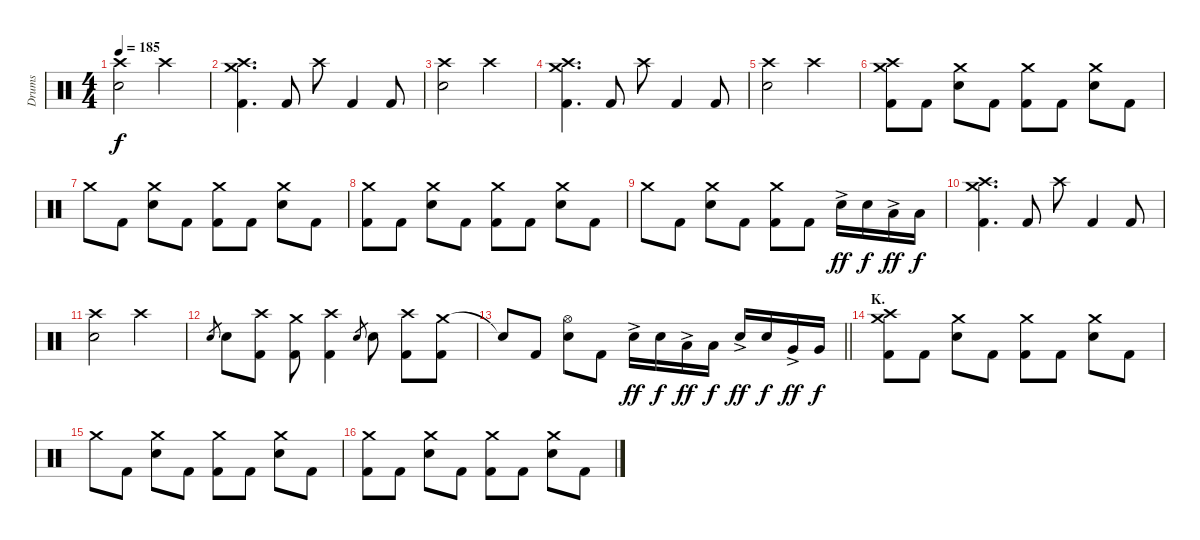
\track ("Drums" "Drums") {instrument percussion}
\staff {score}
\articulation defaults
\ts (4 4)
\tempo 185
\clef neutral
\ks c
("Crash high (hit)" "Electric Snare (hit)").2{dy f} "Crash high (hit)".2 |
("Crash medium (hit)" "Crash high (hit)" "Kick (hit) 2").4{d} "Kick (hit) 2".8 "Crash high (hit)".8 "Kick (hit) 2".4 "Kick (hit) 2".8 |
("Crash high (hit)" "Electric Snare (hit)").2 "Crash high (hit)".2 |
("Crash medium (hit)" "Crash high (hit)" "Kick (hit) 2").4{d} "Kick (hit) 2".8 "Crash high (hit)".8 "Kick (hit) 2".4 "Kick (hit) 2".8 |
("Crash high (hit)" "Electric Snare (hit)").2 "Crash high (hit)".2 |
("Crash medium (hit)" "Crash high (hit)" "Kick (hit) 2").8 "Kick (hit) 2".8 ("Crash medium (hit)" "Electric Snare (hit)").8 "Kick (hit) 2".8 ("Crash medium (hit)" "Kick (hit) 2").8 "Kick (hit) 2".8 ("Crash medium (hit)" "Electric Snare (hit)").8 "Kick (hit) 2".8 |
"Crash medium (hit)".8 "Kick (hit) 2".8 ("Crash medium (hit)" "Electric Snare (hit)").8 "Kick (hit) 2".8 ("Crash medium (hit)" "Kick (hit) 2").8 "Kick (hit) 2".8 ("Crash medium (hit)" "Electric Snare (hit)").8 "Kick (hit) 2".8 |
("Crash medium (hit)" "Kick (hit) 2").8 "Kick (hit) 2".8 ("Crash medium (hit)" "Electric Snare (hit)").8 "Kick (hit) 2".8 ("Crash medium (hit)" "Kick (hit) 2").8 "Kick (hit) 2".8 ("Crash medium (hit)" "Electric Snare (hit)").8 "Kick (hit) 2".8 |
"Crash medium (hit)".8 "Kick (hit) 2".8 ("Crash medium (hit)" "Electric Snare (hit)").8 "Kick (hit) 2".8 ("Crash medium (hit)" "Kick (hit) 2").8 "Kick (hit) 2".8 "Electric Snare (hit)"{ac}.16{dy ff} "Electric Snare (hit)".16{dy f} "Low Tom (hit)"{ac}.16{dy ff} "Low Tom (hit)".16{dy f} |
("Crash medium (hit)" "Crash high (hit)" "Kick (hit) 2").4{d} "Kick (hit) 2".8 "Crash high (hit)".8 "Kick (hit) 2".4 "Kick (hit) 2".8 |
("Crash high (hit)" "Electric Snare (hit)").2 "Crash high (hit)".2 |
"Electric Snare (hit)".8{gr} "Electric Snare (hit)".8 ("Crash high (hit)" "Kick (hit) 2").8 ("Crash medium (hit)" "Kick (hit) 2").8 ("Crash high (hit)" "Kick (hit) 2").4 "Electric Snare (hit)".8{gr} "Electric Snare (hit)".8 ("Crash high (hit)" "Kick (hit) 2").8 ("Crash medium (hit)" "Kick (hit) 2").8 |
\barLineRight lightlight "Snare (hit)"{t}.8 "Kick (hit) 2".8
("Hi-Hat (open)" "Electric Snare (hit)").8 "Kick (hit) 2".8 "Electric Snare (hit)"{ac}.16{dy ff} "Electric Snare (hit)".16{dy f} "Low Tom (hit)"{ac}.16{dy ff} "Low Tom (hit)".16{dy f} "Electric Snare (hit)"{ac}.16{dy ff} "Electric Snare (hit)".16{dy f} "Very Low Tom (hit)"{ac}.16{dy ff} "Very Low Tom (hit)".16{dy f} |
\section ("" "K.")
("Crash medium (hit)" "Crash high (hit)" "Kick (hit) 2").8 "Kick (hit) 2".8 ("Crash medium (hit)" "Electric Snare (hit)").8 "Kick (hit) 2".8 ("Crash medium (hit)" "Kick (hit) 2").8 "Kick (hit) 2".8 ("Crash medium (hit)" "Electric Snare (hit)").8 "Kick (hit) 2".8 |
"Crash medium (hit)".8 "Kick (hit) 2".8 ("Crash medium (hit)" "Electric Snare (hit)").8 "Kick (hit) 2".8 ("Crash medium (hit)" "Kick (hit) 2").8 "Kick (hit) 2".8 ("Crash medium (hit)" "Electric Snare (hit)").8 "Kick (hit) 2".8 |
("Crash medium (hit)" "Kick (hit) 2").8 "Kick (hit) 2".8 ("Crash medium (hit)" "Electric Snare (hit)").8 "Kick (hit) 2".8 ("Crash medium (hit)" "Kick (hit) 2").8 "Kick (hit) 2".8 ("Crash medium (hit)" "Electric Snare (hit)").8 "Kick (hit) 2".8
